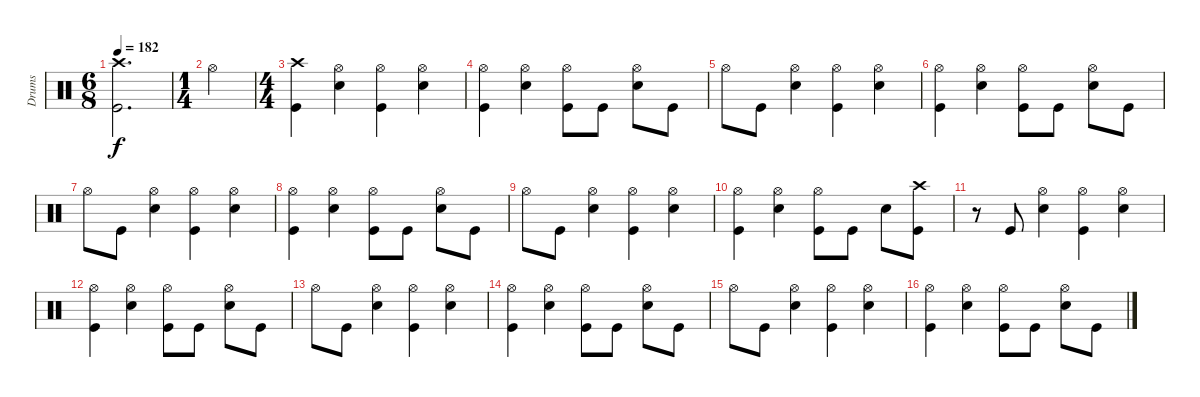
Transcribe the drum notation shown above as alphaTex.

\track ("Drums" "Drums") {instrument percussion}
\staff {score}
\articulation defaults
\ts (6 8)
\tempo 182
\clef neutral
\ks c
("Crash high (hit)" "Kick (hit)").2{d dy f} |
\ts (1 4)
"Hi-Hat (open)".4 |
\ts (4 4)
("Crash high (hit)" "Kick (hit)").4 ("Hi-Hat (open)" "Electric Snare (hit)").4 ("Hi-Hat (open)" "Kick (hit)").4 ("Hi-Hat (open)" "Electric Snare (hit)").4 |
("Hi-Hat (open)" "Kick (hit)").4 ("Hi-Hat (open)" "Electric Snare (hit)").4 ("Hi-Hat (open)" "Kick (hit)").8 "Kick (hit)".8 ("Hi-Hat (open)" "Electric Snare (hit)").8 "Kick (hit)".8 |
"Hi-Hat (open)".8 "Kick (hit)".8 ("Hi-Hat (open)" "Electric Snare (hit)").4 ("Kick (hit)" "Hi-Hat (open)").4 ("Hi-Hat (open)" "Electric Snare (hit)").4 |
("Hi-Hat (open)" "Kick (hit)").4 ("Hi-Hat (open)" "Electric Snare (hit)").4 ("Hi-Hat (open)" "Kick (hit)").8 "Kick (hit)".8 ("Hi-Hat (open)" "Electric Snare (hit)").8 "Kick (hit)".8 |
"Hi-Hat (open)".8 "Kick (hit)".8 ("Hi-Hat (open)" "Electric Snare (hit)").4 ("Kick (hit)" "Hi-Hat (open)").4 ("Hi-Hat (open)" "Electric Snare (hit)").4 |
("Hi-Hat (open)" "Kick (hit)").4 ("Hi-Hat (open)" "Electric Snare (hit)").4 ("Hi-Hat (open)" "Kick (hit)").8 "Kick (hit)".8 ("Hi-Hat (open)" "Electric Snare (hit)").8 "Kick (hit)".8 |
"Hi-Hat (open)".8 "Kick (hit)".8 ("Hi-Hat (open)" "Electric Snare (hit)").4 ("Kick (hit)" "Hi-Hat (open)").4 ("Hi-Hat (open)" "Electric Snare (hit)").4 |
("Hi-Hat (open)" "Kick (hit)").4 ("Hi-Hat (open)" "Electric Snare (hit)").4 ("Hi-Hat (open)" "Kick (hit)").8 "Kick (hit)".8 "Electric Snare (hit)".8 ("Crash high (hit)" "Kick (hit)").8 |
r.8 "Kick (hit)".8 ("Hi-Hat (open)" "Electric Snare (hit)").4 ("Kick (hit)" "Hi-Hat (open)").4 ("Hi-Hat (open)" "Electric Snare (hit)").4 |
("Hi-Hat (open)" "Kick (hit)").4 ("Hi-Hat (open)" "Electric Snare (hit)").4 ("Hi-Hat (open)" "Kick (hit)").8 "Kick (hit)".8 ("Hi-Hat (open)" "Electric Snare (hit)").8 "Kick (hit)".8 |
"Hi-Hat (open)".8 "Kick (hit)".8 ("Hi-Hat (open)" "Electric Snare (hit)").4 ("Kick (hit)" "Hi-Hat (open)").4 ("Hi-Hat (open)" "Electric Snare (hit)").4 |
("Hi-Hat (open)" "Kick (hit)").4 ("Hi-Hat (open)" "Electric Snare (hit)").4 ("Hi-Hat (open)" "Kick (hit)").8 "Kick (hit)".8 ("Hi-Hat (open)" "Electric Snare (hit)").8 "Kick (hit)".8 |
"Hi-Hat (open)".8 "Kick (hit)".8 ("Hi-Hat (open)" "Electric Snare (hit)").4 ("Kick (hit)" "Hi-Hat (open)").4 ("Hi-Hat (open)" "Electric Snare (hit)").4 |
("Hi-Hat (open)" "Kick (hit)").4 ("Hi-Hat (open)" "Electric Snare (hit)").4 ("Hi-Hat (open)" "Kick (hit)").8 "Kick (hit)".8 ("Hi-Hat (open)" "Electric Snare (hit)").8 "Kick (hit)".8
